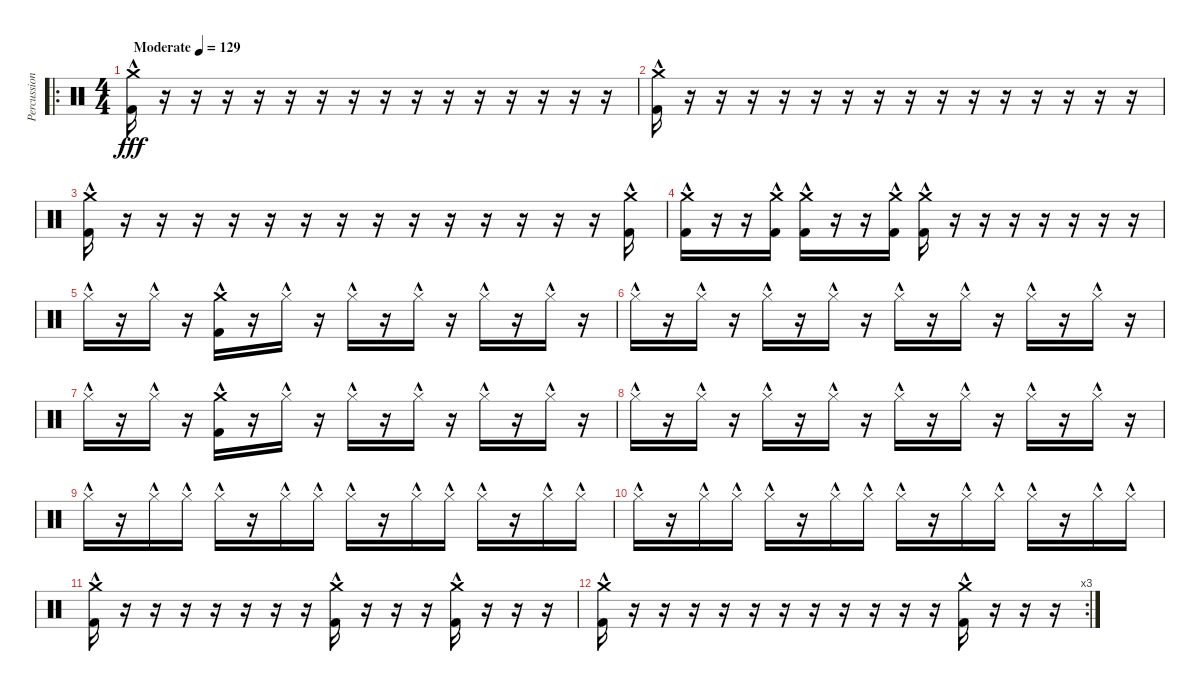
\track ("Percussion" "Percussion") {instrument percussion}
\staff {score}
\articulation defaults
\ro
\ts (4 4)
\tempo (129 "Moderate")
\clef neutral
\ks c
("Crash medium (hit)"{hac} "Kick (hit) 2"{hac}).16{dy fff} r.16 r.16 r.16 r.16 r.16 r.16 r.16 r.16 r.16 r.16 r.16 r.16 r.16 r.16 r.16 |
("Crash medium (hit)"{hac} "Kick (hit) 2"{hac}).16 r.16 r.16 r.16 r.16 r.16 r.16 r.16 r.16 r.16 r.16 r.16 r.16 r.16 r.16 r.16 |
("Crash medium (hit)"{hac} "Kick (hit) 2"{hac}).16 r.16 r.16 r.16 r.16 r.16 r.16 r.16 r.16 r.16 r.16 r.16 r.16 r.16 r.16 ("Crash medium (hit)"{hac} "Kick (hit) 2"{hac}).16 |
("Crash medium (hit)"{hac} "Kick (hit) 2"{hac}).16 r.16 r.16 ("Crash medium (hit)"{hac} "Kick (hit) 2"{hac}).16 ("Crash medium (hit)"{hac} "Kick (hit) 2"{hac}).16 r.16 r.16 ("Crash medium (hit)"{hac} "Kick (hit) 2"{hac}).16 ("Crash medium (hit)"{hac} "Kick (hit) 2"{hac}).16 r.16 r.16 r.16 r.16 r.16 r.16 r.16 |
"Hi-Hat (closed)"{hac}.16 r.16 "Hi-Hat (closed)"{hac}.16 r.16 ("Crash medium (hit)"{hac} "Kick (hit) 2"{hac}).16 r.16 "Hi-Hat (closed)"{hac}.16 r.16 "Hi-Hat (closed)"{hac}.16 r.16 "Hi-Hat (closed)"{hac}.16 r.16 "Hi-Hat (closed)"{hac}.16 r.16 "Hi-Hat (closed)"{hac}.16 r.16 |
"Hi-Hat (closed)"{hac}.16 r.16 "Hi-Hat (closed)"{hac}.16 r.16 "Hi-Hat (closed)"{hac}.16 r.16 "Hi-Hat (closed)"{hac}.16 r.16 "Hi-Hat (closed)"{hac}.16 r.16 "Hi-Hat (closed)"{hac}.16 r.16 "Hi-Hat (closed)"{hac}.16 r.16 "Hi-Hat (closed)"{hac}.16 r.16 |
"Hi-Hat (closed)"{hac}.16 r.16 "Hi-Hat (closed)"{hac}.16 r.16 ("Crash medium (hit)"{hac} "Kick (hit) 2"{hac}).16 r.16 "Hi-Hat (closed)"{hac}.16 r.16 "Hi-Hat (closed)"{hac}.16 r.16 "Hi-Hat (closed)"{hac}.16 r.16 "Hi-Hat (closed)"{hac}.16 r.16 "Hi-Hat (closed)"{hac}.16 r.16 |
"Hi-Hat (closed)"{hac}.16 r.16 "Hi-Hat (closed)"{hac}.16 r.16 "Hi-Hat (closed)"{hac}.16 r.16 "Hi-Hat (closed)"{hac}.16 r.16 "Hi-Hat (closed)"{hac}.16 r.16 "Hi-Hat (closed)"{hac}.16 r.16 "Hi-Hat (closed)"{hac}.16 r.16 "Hi-Hat (closed)"{hac}.16 r.16 |
"Hi-Hat (closed)"{hac}.16 r.16 "Hi-Hat (closed)"{hac}.16 "Hi-Hat (closed)"{hac}.16 "Hi-Hat (closed)"{hac}.16 r.16 "Hi-Hat (closed)"{hac}.16 "Hi-Hat (closed)"{hac}.16 "Hi-Hat (closed)"{hac}.16 r.16 "Hi-Hat (closed)"{hac}.16 "Hi-Hat (closed)"{hac}.16 "Hi-Hat (closed)"{hac}.16 r.16 "Hi-Hat (closed)"{hac}.16 "Hi-Hat (closed)"{hac}.16 |
"Hi-Hat (closed)"{hac}.16 r.16 "Hi-Hat (closed)"{hac}.16 "Hi-Hat (closed)"{hac}.16 "Hi-Hat (closed)"{hac}.16 r.16 "Hi-Hat (closed)"{hac}.16 "Hi-Hat (closed)"{hac}.16 "Hi-Hat (closed)"{hac}.16 r.16 "Hi-Hat (closed)"{hac}.16 "Hi-Hat (closed)"{hac}.16 "Hi-Hat (closed)"{hac}.16 r.16 "Hi-Hat (closed)"{hac}.16 "Hi-Hat (closed)"{hac}.16 |
("Crash medium (hit)"{hac} "Kick (hit) 2"{hac}).16 r.16 r.16 r.16 r.16 r.16 r.16 r.16 ("Crash medium (hit)"{hac} "Kick (hit) 2"{hac}).16 r.16 r.16 r.16 ("Crash medium (hit)"{hac} "Kick (hit) 2"{hac}).16 r.16 r.16 r.16 |
\rc 3
("Crash medium (hit)"{hac} "Kick (hit) 2"{hac}).16 r.16 r.16 r.16 r.16 r.16 r.16 r.16 r.16 r.16 r.16 r.16 ("Crash medium (hit)"{hac} "Kick (hit) 2"{hac}).16 r.16 r.16 r.16
